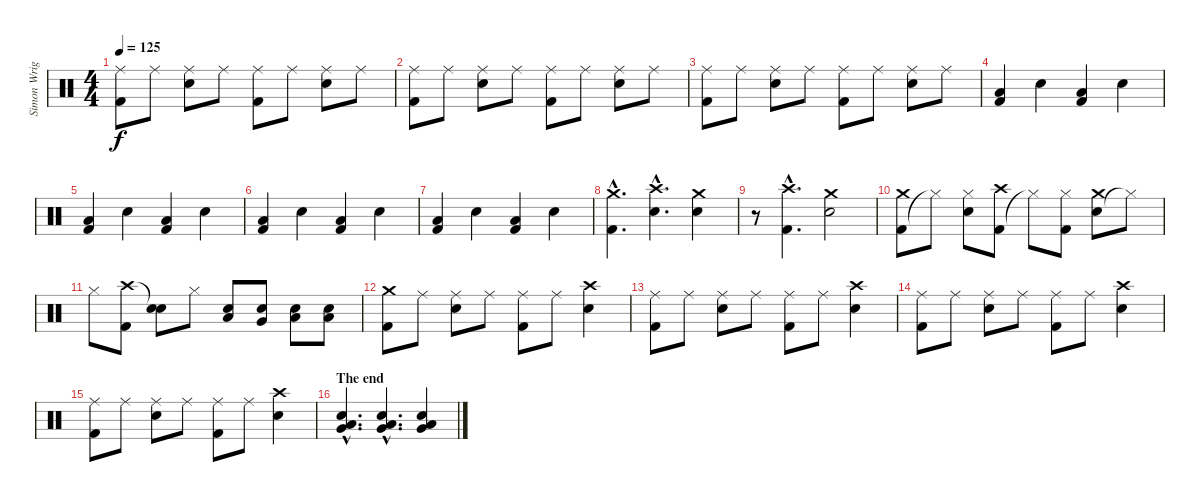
\track ("Simon Wright" "Simon Wrig") {instrument percussion}
\staff {score}
\articulation defaults
\ts (4 4)
\tempo 125
\clef neutral
\ks c
("Kick (hit) 2" "Ride (middle)").8{dy f} "Ride (middle)".8 ("Snare (hit) 2" "Ride (middle)").8 "Ride (middle)".8 ("Kick (hit) 2" "Ride (middle)").8 "Ride (middle)".8 ("Snare (hit) 2" "Ride (middle)").8 "Ride (middle)".8 |
("Kick (hit) 2" "Ride (middle)").8 "Ride (middle)".8 ("Snare (hit) 2" "Ride (middle)").8 "Ride (middle)".8 ("Kick (hit) 2" "Ride (middle)").8 "Ride (middle)".8 ("Snare (hit) 2" "Ride (middle)").8 "Ride (middle)".8 |
("Kick (hit) 2" "Ride (middle)").8 "Ride (middle)".8 ("Snare (hit) 2" "Ride (middle)").8 "Ride (middle)".8 ("Kick (hit) 2" "Ride (middle)").8 "Ride (middle)".8 ("Snare (hit) 2" "Ride (middle)").8 "Ride (middle)".8 |
("Kick (hit) 2" "Low Floor Tom (hit)").4 "Snare (hit) 2".4 ("Kick (hit) 2" "Low Floor Tom (hit)").4 "Snare (hit) 2".4 |
("Kick (hit) 2" "Low Floor Tom (hit)").4 "Snare (hit) 2".4 ("Kick (hit) 2" "Low Floor Tom (hit)").4 "Snare (hit) 2".4 |
("Kick (hit) 2" "Low Floor Tom (hit)").4 "Snare (hit) 2".4 ("Kick (hit) 2" "Low Floor Tom (hit)").4 "Snare (hit) 2".4 |
("Kick (hit) 2" "Low Floor Tom (hit)").4 "Snare (hit) 2".4 ("Kick (hit) 2" "Low Floor Tom (hit)").4 "Snare (hit) 2".4 |
("Kick (hit) 2"{hac} "Crash medium (hit)"{hac}).4{d} ("Snare (hit) 2"{hac} "Crash high (hit)"{hac}).4{d} ("Snare (hit) 2" "Crash medium (hit)").4 |
r.8 ("Kick (hit) 2"{hac} "Crash high (hit)"{hac}).4{d} ("Snare (hit) 2" "Crash medium (hit)").2 |
("Kick (hit) 2" "Crash medium (hit)").8 "Hi-Hat (closed)"{t}.8 ("Snare (hit) 2" "Hi-Hat (closed)").8 ("Kick (hit) 2" "Crash high (hit)").8 "Hi-Hat (closed)"{t}.8 ("Kick (hit) 2" "Hi-Hat (closed)").8 ("Snare (hit) 2" "Crash medium (hit)").8 "Hi-Hat (closed)"{t}.8 |
"Hi-Hat (closed)".8 ("Kick (hit) 2" "Crash high (hit)").8 ("Snare (hit) 2" "Snare (hit)"{t}).8 "Hi-Hat (closed)".8 ("Snare (hit) 2" "Low Tom (hit)").8 ("Snare (hit) 2" "Very Low Tom (hit)").8 ("Snare (hit) 2" "Low Floor Tom (hit)").8 ("Snare (hit) 2" "Low Floor Tom (hit)").8 |
("Kick (hit) 2" "Crash medium (hit)").8 "Ride (middle)".8 ("Snare (hit) 2" "Ride (middle)").8 "Ride (middle)".8 ("Kick (hit) 2" "Ride (middle)").8 "Ride (middle)".8 ("Snare (hit) 2" "Crash high (hit)").4 |
("Kick (hit) 2" "Ride (middle)").8 "Ride (middle)".8 ("Snare (hit) 2" "Ride (middle)").8 "Ride (middle)".8 ("Kick (hit) 2" "Ride (middle)").8 "Ride (middle)".8 ("Snare (hit) 2" "Crash high (hit)").4 |
("Kick (hit) 2" "Ride (middle)").8 "Ride (middle)".8 ("Snare (hit) 2" "Ride (middle)").8 "Ride (middle)".8 ("Kick (hit) 2" "Ride (middle)").8 "Ride (middle)".8 ("Snare (hit) 2" "Crash high (hit)").4 |
("Kick (hit) 2" "Ride (middle)").8 "Ride (middle)".8 ("Snare (hit) 2" "Ride (middle)").8 "Ride (middle)".8 ("Kick (hit) 2" "Ride (middle)").8 "Ride (middle)".8 ("Snare (hit) 2" "Crash high (hit)").4 |
\section ("" "The end")
("Snare (hit) 2"{hac} "Low Tom (hit)"{hac} "Very Low Tom (hit)"{hac}).4{d} ("Snare (hit) 2"{hac} "Low Tom (hit)"{hac} "Very Low Tom (hit)"{hac}).4{d} ("Snare (hit) 2" "Very Low Tom (hit)" "Low Floor Tom (hit)").4
